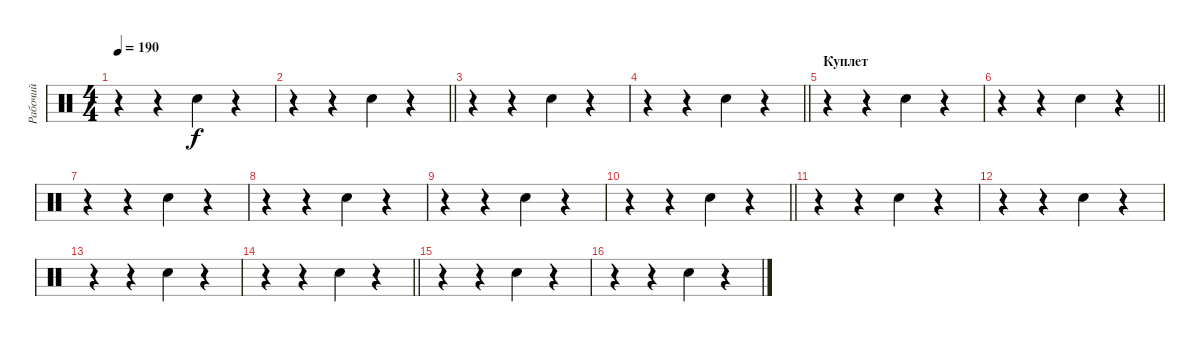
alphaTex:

\track ("Рабочий" "Рабочий") {instrument percussion}
\staff {score}
\articulation defaults
\ts (4 4)
\tempo 190
\clef neutral
\ks c
r.4{dy f} r.4 "Snare (hit) 2".4 r.4 |
\barLineRight lightlight
r.4 r.4 "Snare (hit) 2".4 r.4 |
r.4 r.4 "Snare (hit) 2".4 r.4 |
\barLineRight lightlight
r.4 r.4 "Snare (hit) 2".4 r.4 |
\section ("" "Куплет")
r.4 r.4 "Snare (hit) 2".4 r.4 |
\barLineRight lightlight
r.4 r.4 "Snare (hit) 2".4 r.4 |
r.4 r.4 "Snare (hit) 2".4 r.4 |
r.4 r.4 "Snare (hit) 2".4 r.4 |
r.4 r.4 "Snare (hit) 2".4 r.4 |
\barLineRight lightlight
r.4 r.4 "Snare (hit) 2".4 r.4 |
r.4 r.4 "Snare (hit) 2".4 r.4 |
r.4 r.4 "Snare (hit) 2".4 r.4 |
r.4 r.4 "Snare (hit) 2".4 r.4 |
\barLineRight lightlight
r.4 r.4 "Snare (hit) 2".4 r.4 |
r.4 r.4 "Snare (hit) 2".4 r.4 |
r.4 r.4 "Snare (hit) 2".4 r.4
